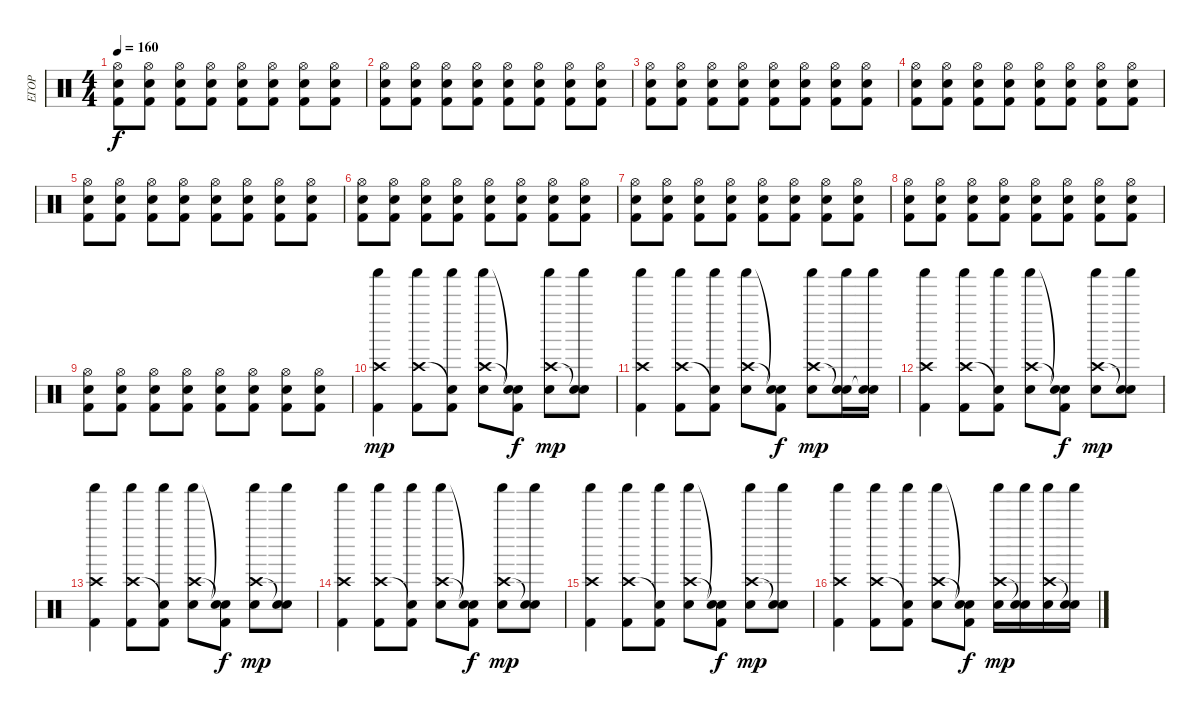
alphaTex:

\track ("ЕГОР" "ЕГОР") {instrument percussion}
\staff {score}
\articulation defaults
\ts (4 4)
\tempo 160
\clef neutral
\ks c
("Hi-Hat (open)" "Electric Snare (hit)" "Kick (hit) 2").8{dy f} ("Hi-Hat (open)" "Electric Snare (hit)" "Kick (hit) 2").8 ("Hi-Hat (open)" "Electric Snare (hit)" "Kick (hit) 2").8 ("Hi-Hat (open)" "Electric Snare (hit)" "Kick (hit) 2").8 ("Hi-Hat (open)" "Electric Snare (hit)" "Kick (hit) 2").8 ("Hi-Hat (open)" "Electric Snare (hit)" "Kick (hit) 2").8 ("Hi-Hat (open)" "Electric Snare (hit)" "Kick (hit) 2").8 ("Hi-Hat (open)" "Electric Snare (hit)" "Kick (hit) 2").8 |
("Hi-Hat (open)" "Electric Snare (hit)" "Kick (hit) 2").8 ("Hi-Hat (open)" "Electric Snare (hit)" "Kick (hit) 2").8 ("Hi-Hat (open)" "Electric Snare (hit)" "Kick (hit) 2").8 ("Hi-Hat (open)" "Electric Snare (hit)" "Kick (hit) 2").8 ("Hi-Hat (open)" "Electric Snare (hit)" "Kick (hit) 2").8 ("Hi-Hat (open)" "Electric Snare (hit)" "Kick (hit) 2").8 ("Hi-Hat (open)" "Electric Snare (hit)" "Kick (hit) 2").8 ("Hi-Hat (open)" "Electric Snare (hit)" "Kick (hit) 2").8 |
("Hi-Hat (open)" "Electric Snare (hit)" "Kick (hit) 2").8 ("Hi-Hat (open)" "Electric Snare (hit)" "Kick (hit) 2").8 ("Hi-Hat (open)" "Electric Snare (hit)" "Kick (hit) 2").8 ("Hi-Hat (open)" "Electric Snare (hit)" "Kick (hit) 2").8 ("Hi-Hat (open)" "Electric Snare (hit)" "Kick (hit) 2").8 ("Hi-Hat (open)" "Electric Snare (hit)" "Kick (hit) 2").8 ("Hi-Hat (open)" "Electric Snare (hit)" "Kick (hit) 2").8 ("Hi-Hat (open)" "Electric Snare (hit)" "Kick (hit) 2").8 |
("Hi-Hat (open)" "Electric Snare (hit)" "Kick (hit) 2").8 ("Hi-Hat (open)" "Electric Snare (hit)" "Kick (hit) 2").8 ("Hi-Hat (open)" "Electric Snare (hit)" "Kick (hit) 2").8 ("Hi-Hat (open)" "Electric Snare (hit)" "Kick (hit) 2").8 ("Hi-Hat (open)" "Electric Snare (hit)" "Kick (hit) 2").8 ("Hi-Hat (open)" "Electric Snare (hit)" "Kick (hit) 2").8 ("Hi-Hat (open)" "Electric Snare (hit)" "Kick (hit) 2").8 ("Hi-Hat (open)" "Electric Snare (hit)" "Kick (hit) 2").8 |
("Hi-Hat (open)" "Electric Snare (hit)" "Kick (hit) 2").8 ("Hi-Hat (open)" "Electric Snare (hit)" "Kick (hit) 2").8 ("Hi-Hat (open)" "Electric Snare (hit)" "Kick (hit) 2").8 ("Hi-Hat (open)" "Electric Snare (hit)" "Kick (hit) 2").8 ("Hi-Hat (open)" "Electric Snare (hit)" "Kick (hit) 2").8 ("Hi-Hat (open)" "Electric Snare (hit)" "Kick (hit) 2").8 ("Hi-Hat (open)" "Electric Snare (hit)" "Kick (hit) 2").8 ("Hi-Hat (open)" "Electric Snare (hit)" "Kick (hit) 2").8 |
("Hi-Hat (open)" "Electric Snare (hit)" "Kick (hit) 2").8 ("Hi-Hat (open)" "Electric Snare (hit)" "Kick (hit) 2").8 ("Hi-Hat (open)" "Electric Snare (hit)" "Kick (hit) 2").8 ("Hi-Hat (open)" "Electric Snare (hit)" "Kick (hit) 2").8 ("Hi-Hat (open)" "Electric Snare (hit)" "Kick (hit) 2").8 ("Hi-Hat (open)" "Electric Snare (hit)" "Kick (hit) 2").8 ("Hi-Hat (open)" "Electric Snare (hit)" "Kick (hit) 2").8 ("Hi-Hat (open)" "Electric Snare (hit)" "Kick (hit) 2").8 |
("Hi-Hat (open)" "Electric Snare (hit)" "Kick (hit) 2").8 ("Hi-Hat (open)" "Electric Snare (hit)" "Kick (hit) 2").8 ("Hi-Hat (open)" "Electric Snare (hit)" "Kick (hit) 2").8 ("Hi-Hat (open)" "Electric Snare (hit)" "Kick (hit) 2").8 ("Hi-Hat (open)" "Electric Snare (hit)" "Kick (hit) 2").8 ("Hi-Hat (open)" "Electric Snare (hit)" "Kick (hit) 2").8 ("Hi-Hat (open)" "Electric Snare (hit)" "Kick (hit) 2").8 ("Hi-Hat (open)" "Electric Snare (hit)" "Kick (hit) 2").8 |
("Hi-Hat (open)" "Electric Snare (hit)" "Kick (hit) 2").8 ("Hi-Hat (open)" "Electric Snare (hit)" "Kick (hit) 2").8 ("Hi-Hat (open)" "Electric Snare (hit)" "Kick (hit) 2").8 ("Hi-Hat (open)" "Electric Snare (hit)" "Kick (hit) 2").8 ("Hi-Hat (open)" "Electric Snare (hit)" "Kick (hit) 2").8 ("Hi-Hat (open)" "Electric Snare (hit)" "Kick (hit) 2").8 ("Hi-Hat (open)" "Electric Snare (hit)" "Kick (hit) 2").8 ("Hi-Hat (open)" "Electric Snare (hit)" "Kick (hit) 2").8 |
("Hi-Hat (open)" "Electric Snare (hit)" "Kick (hit) 2").8 ("Hi-Hat (open)" "Electric Snare (hit)" "Kick (hit) 2").8 ("Hi-Hat (open)" "Electric Snare (hit)" "Kick (hit) 2").8 ("Hi-Hat (open)" "Electric Snare (hit)" "Kick (hit) 2").8 ("Hi-Hat (open)" "Electric Snare (hit)" "Kick (hit) 2").8 ("Hi-Hat (open)" "Electric Snare (hit)" "Kick (hit) 2").8 ("Hi-Hat (open)" "Electric Snare (hit)" "Kick (hit) 2").8 ("Hi-Hat (open)" "Electric Snare (hit)" "Kick (hit) 2").8 |
("Crash high (hit)" "Shaker (hit)" "Kick (hit) 2").4{dy mp} ("Crash high (hit)" "Shaker (hit)" "Kick (hit) 2").8 ("Snare (hit)"{t} "Shaker (hit)" "Kick (hit) 2").8 ("Crash high (hit)" "Shaker (hit)" "Electric Snare (hit)").8 ("Snare (hit)"{t} "Snare (hit)"{t} "Kick (hit) 2").8{dy f} ("Crash high (hit)" "Shaker (hit)" "Electric Snare (hit)").8{dy mp} ("Snare (hit)"{t} "Shaker (hit)" "Electric Snare (hit)").8 |
("Crash high (hit)" "Shaker (hit)" "Kick (hit) 2").4 ("Crash high (hit)" "Shaker (hit)" "Kick (hit) 2").8 ("Snare (hit)"{t} "Shaker (hit)" "Kick (hit) 2").8 ("Crash high (hit)" "Shaker (hit)" "Electric Snare (hit)").8 ("Snare (hit)"{t} "Snare (hit)"{t} "Kick (hit) 2").8{dy f} ("Crash high (hit)" "Shaker (hit)" "Electric Snare (hit)").8{dy mp} ("Snare (hit)"{t} "Shaker (hit)" "Electric Snare (hit)").16 ("Snare (hit)"{t} "Shaker (hit)" "Electric Snare (hit)").16 |
("Crash high (hit)" "Shaker (hit)" "Kick (hit) 2").4 ("Crash high (hit)" "Shaker (hit)" "Kick (hit) 2").8 ("Snare (hit)"{t} "Shaker (hit)" "Kick (hit) 2").8 ("Crash high (hit)" "Shaker (hit)" "Electric Snare (hit)").8 ("Snare (hit)"{t} "Snare (hit)"{t} "Kick (hit) 2").8{dy f} ("Crash high (hit)" "Shaker (hit)" "Electric Snare (hit)").8{dy mp} ("Snare (hit)"{t} "Shaker (hit)" "Electric Snare (hit)").8 |
("Crash high (hit)" "Shaker (hit)" "Kick (hit) 2").4 ("Crash high (hit)" "Shaker (hit)" "Kick (hit) 2").8 ("Snare (hit)"{t} "Shaker (hit)" "Kick (hit) 2").8 ("Crash high (hit)" "Shaker (hit)" "Electric Snare (hit)").8 ("Snare (hit)"{t} "Snare (hit)"{t} "Kick (hit) 2").8{dy f} ("Crash high (hit)" "Shaker (hit)" "Electric Snare (hit)").8{dy mp} ("Snare (hit)"{t} "Shaker (hit)" "Electric Snare (hit)").8 |
("Crash high (hit)" "Shaker (hit)" "Kick (hit) 2").4 ("Crash high (hit)" "Shaker (hit)" "Kick (hit) 2").8 ("Snare (hit)"{t} "Shaker (hit)" "Kick (hit) 2").8 ("Crash high (hit)" "Shaker (hit)" "Electric Snare (hit)").8 ("Snare (hit)"{t} "Snare (hit)"{t} "Kick (hit) 2").8{dy f} ("Crash high (hit)" "Shaker (hit)" "Electric Snare (hit)").8{dy mp} ("Snare (hit)"{t} "Shaker (hit)" "Electric Snare (hit)").8 |
("Crash high (hit)" "Shaker (hit)" "Kick (hit) 2").4 ("Crash high (hit)" "Shaker (hit)" "Kick (hit) 2").8 ("Snare (hit)"{t} "Shaker (hit)" "Kick (hit) 2").8 ("Crash high (hit)" "Shaker (hit)" "Electric Snare (hit)").8 ("Snare (hit)"{t} "Snare (hit)"{t} "Kick (hit) 2").8{dy f} ("Crash high (hit)" "Shaker (hit)" "Electric Snare (hit)").8{dy mp} ("Snare (hit)"{t} "Shaker (hit)" "Electric Snare (hit)").8 |
("Crash high (hit)" "Shaker (hit)" "Kick (hit) 2").4 ("Crash high (hit)" "Shaker (hit)" "Kick (hit) 2").8 ("Snare (hit)"{t} "Shaker (hit)" "Kick (hit) 2").8 ("Crash high (hit)" "Shaker (hit)" "Electric Snare (hit)").8 ("Snare (hit)"{t} "Snare (hit)"{t} "Kick (hit) 2").8{dy f} ("Crash high (hit)" "Shaker (hit)" "Electric Snare (hit)").16{dy mp} ("Snare (hit)"{t} "Shaker (hit)" "Electric Snare (hit)").16 ("Crash high (hit)" "Shaker (hit)" "Electric Snare (hit)").16 ("Snare (hit)"{t} "Shaker (hit)" "Electric Snare (hit)").16
